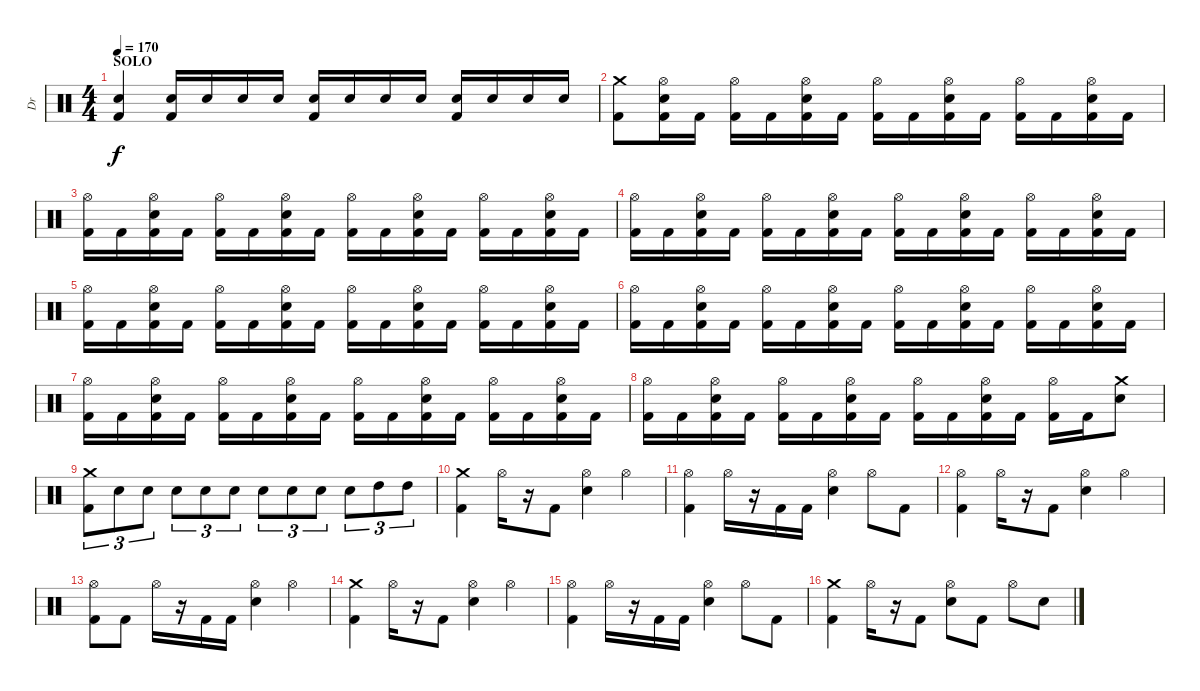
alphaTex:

\track ("Dr" "Dr") {instrument percussion}
\staff {score}
\articulation defaults
\ts (4 4)
\section ("" "SOLO")
\tempo 170
\clef neutral
\ks c
("Snare (hit)"{t} "Kick (hit) 2").4{dy f} ("Electric Snare (hit)" "Kick (hit) 2").16 "Electric Snare (hit)".16 "Electric Snare (hit)".16 "Electric Snare (hit)".16 ("Electric Snare (hit)" "Kick (hit) 2").16 "Electric Snare (hit)".16 "Electric Snare (hit)".16 "Electric Snare (hit)".16 ("Electric Snare (hit)" "Kick (hit) 2").16 "Electric Snare (hit)".16 "Electric Snare (hit)".16 "Electric Snare (hit)".16 |
("Crash medium (hit)" "Kick (hit) 2").8 ("Hi-Hat (open)" "Electric Snare (hit)" "Kick (hit) 2").16 "Kick (hit) 2".16 ("Hi-Hat (open)" "Kick (hit) 2").16 "Kick (hit) 2".16 ("Hi-Hat (open)" "Electric Snare (hit)" "Kick (hit) 2").16 "Kick (hit) 2".16 ("Hi-Hat (open)" "Kick (hit) 2").16 "Kick (hit) 2".16 ("Hi-Hat (open)" "Electric Snare (hit)" "Kick (hit) 2").16 "Kick (hit) 2".16 ("Hi-Hat (open)" "Kick (hit) 2").16 "Kick (hit) 2".16 ("Hi-Hat (open)" "Electric Snare (hit)" "Kick (hit) 2").16 "Kick (hit) 2".16 |
("Hi-Hat (open)" "Kick (hit) 2").16 "Kick (hit) 2".16 ("Hi-Hat (open)" "Electric Snare (hit)" "Kick (hit) 2").16 "Kick (hit) 2".16 ("Hi-Hat (open)" "Kick (hit) 2").16 "Kick (hit) 2".16 ("Hi-Hat (open)" "Electric Snare (hit)" "Kick (hit) 2").16 "Kick (hit) 2".16 ("Hi-Hat (open)" "Kick (hit) 2").16 "Kick (hit) 2".16 ("Hi-Hat (open)" "Electric Snare (hit)" "Kick (hit) 2").16 "Kick (hit) 2".16 ("Hi-Hat (open)" "Kick (hit) 2").16 "Kick (hit) 2".16 ("Hi-Hat (open)" "Electric Snare (hit)" "Kick (hit) 2").16 "Kick (hit) 2".16 |
("Hi-Hat (open)" "Kick (hit) 2").16 "Kick (hit) 2".16 ("Hi-Hat (open)" "Electric Snare (hit)" "Kick (hit) 2").16 "Kick (hit) 2".16 ("Hi-Hat (open)" "Kick (hit) 2").16 "Kick (hit) 2".16 ("Hi-Hat (open)" "Electric Snare (hit)" "Kick (hit) 2").16 "Kick (hit) 2".16 ("Hi-Hat (open)" "Kick (hit) 2").16 "Kick (hit) 2".16 ("Hi-Hat (open)" "Electric Snare (hit)" "Kick (hit) 2").16 "Kick (hit) 2".16 ("Hi-Hat (open)" "Kick (hit) 2").16 "Kick (hit) 2".16 ("Hi-Hat (open)" "Electric Snare (hit)" "Kick (hit) 2").16 "Kick (hit) 2".16 |
("Hi-Hat (open)" "Kick (hit) 2").16 "Kick (hit) 2".16 ("Hi-Hat (open)" "Electric Snare (hit)" "Kick (hit) 2").16 "Kick (hit) 2".16 ("Hi-Hat (open)" "Kick (hit) 2").16 "Kick (hit) 2".16 ("Hi-Hat (open)" "Electric Snare (hit)" "Kick (hit) 2").16 "Kick (hit) 2".16 ("Hi-Hat (open)" "Kick (hit) 2").16 "Kick (hit) 2".16 ("Hi-Hat (open)" "Electric Snare (hit)" "Kick (hit) 2").16 "Kick (hit) 2".16 ("Hi-Hat (open)" "Kick (hit) 2").16 "Kick (hit) 2".16 ("Hi-Hat (open)" "Electric Snare (hit)" "Kick (hit) 2").16 "Kick (hit) 2".16 |
("Hi-Hat (open)" "Kick (hit) 2").16 "Kick (hit) 2".16 ("Hi-Hat (open)" "Electric Snare (hit)" "Kick (hit) 2").16 "Kick (hit) 2".16 ("Hi-Hat (open)" "Kick (hit) 2").16 "Kick (hit) 2".16 ("Hi-Hat (open)" "Electric Snare (hit)" "Kick (hit) 2").16 "Kick (hit) 2".16 ("Hi-Hat (open)" "Kick (hit) 2").16 "Kick (hit) 2".16 ("Hi-Hat (open)" "Electric Snare (hit)" "Kick (hit) 2").16 "Kick (hit) 2".16 ("Hi-Hat (open)" "Kick (hit) 2").16 "Kick (hit) 2".16 ("Hi-Hat (open)" "Electric Snare (hit)" "Kick (hit) 2").16 "Kick (hit) 2".16 |
("Hi-Hat (open)" "Kick (hit) 2").16 "Kick (hit) 2".16 ("Hi-Hat (open)" "Electric Snare (hit)" "Kick (hit) 2").16 "Kick (hit) 2".16 ("Hi-Hat (open)" "Kick (hit) 2").16 "Kick (hit) 2".16 ("Hi-Hat (open)" "Electric Snare (hit)" "Kick (hit) 2").16 "Kick (hit) 2".16 ("Hi-Hat (open)" "Kick (hit) 2").16 "Kick (hit) 2".16 ("Hi-Hat (open)" "Electric Snare (hit)" "Kick (hit) 2").16 "Kick (hit) 2".16 ("Hi-Hat (open)" "Kick (hit) 2").16 "Kick (hit) 2".16 ("Hi-Hat (open)" "Electric Snare (hit)" "Kick (hit) 2").16 "Kick (hit) 2".16 |
("Hi-Hat (open)" "Kick (hit) 2").16 "Kick (hit) 2".16 ("Hi-Hat (open)" "Electric Snare (hit)" "Kick (hit) 2").16 "Kick (hit) 2".16 ("Hi-Hat (open)" "Kick (hit) 2").16 "Kick (hit) 2".16 ("Hi-Hat (open)" "Electric Snare (hit)" "Kick (hit) 2").16 "Kick (hit) 2".16 ("Hi-Hat (open)" "Kick (hit) 2").16 "Kick (hit) 2".16 ("Hi-Hat (open)" "Electric Snare (hit)" "Kick (hit) 2").16 "Kick (hit) 2".16 ("Hi-Hat (open)" "Kick (hit) 2").16 "Kick (hit) 2".16 ("Crash medium (hit)" "Electric Snare (hit)").8 |
("Crash medium (hit)" "Kick (hit) 2").8{tu (3 2)} "Electric Snare (hit)".8{tu (3 2)} "Electric Snare (hit)".8{tu (3 2)} "Electric Snare (hit)".8{tu (3 2)} "Electric Snare (hit)".8{tu (3 2)} "Electric Snare (hit)".8{tu (3 2)} "Electric Snare (hit)".8{tu (3 2)} "Electric Snare (hit)".8{tu (3 2)} "Electric Snare (hit)".8{tu (3 2)} "Electric Snare (hit)".8{tu (3 2)} "High Tom (hit)".8{tu (3 2)} "High Tom (hit)".8{tu (3 2)} |
("Crash medium (hit)" "Kick (hit) 2").4 "Hi-Hat (open)".16 r.16 "Kick (hit) 2".8 ("Hi-Hat (open)" "Electric Snare (hit)").4 "Hi-Hat (open)".4 |
("Hi-Hat (open)" "Kick (hit) 2").4 "Hi-Hat (open)".16 r.16 "Kick (hit) 2".16 "Kick (hit) 2".16 ("Hi-Hat (open)" "Electric Snare (hit)").4 "Hi-Hat (open)".8 "Kick (hit) 2".8 |
("Hi-Hat (open)" "Kick (hit) 2").4 "Hi-Hat (open)".16 r.16 "Kick (hit) 2".8 ("Hi-Hat (open)" "Electric Snare (hit)").4 "Hi-Hat (open)".4 |
("Hi-Hat (open)" "Kick (hit) 2").8 "Kick (hit) 2".8 "Hi-Hat (open)".16 r.16 "Kick (hit) 2".16 "Kick (hit) 2".16 ("Hi-Hat (open)" "Electric Snare (hit)").4 "Hi-Hat (open)".4 |
("Crash medium (hit)" "Kick (hit) 2").4 "Hi-Hat (open)".16 r.16 "Kick (hit) 2".8 ("Hi-Hat (open)" "Electric Snare (hit)").4 "Hi-Hat (open)".4 |
("Hi-Hat (open)" "Kick (hit) 2").4 "Hi-Hat (open)".16 r.16 "Kick (hit) 2".16 "Kick (hit) 2".16 ("Hi-Hat (open)" "Electric Snare (hit)").4 "Hi-Hat (open)".8 "Kick (hit) 2".8 |
("Crash medium (hit)" "Kick (hit) 2").4 "Hi-Hat (open)".16 r.16 "Kick (hit) 2".8 ("Hi-Hat (open)" "Electric Snare (hit)").8 "Kick (hit) 2".8 "Hi-Hat (open)".8 "Electric Snare (hit)".8
